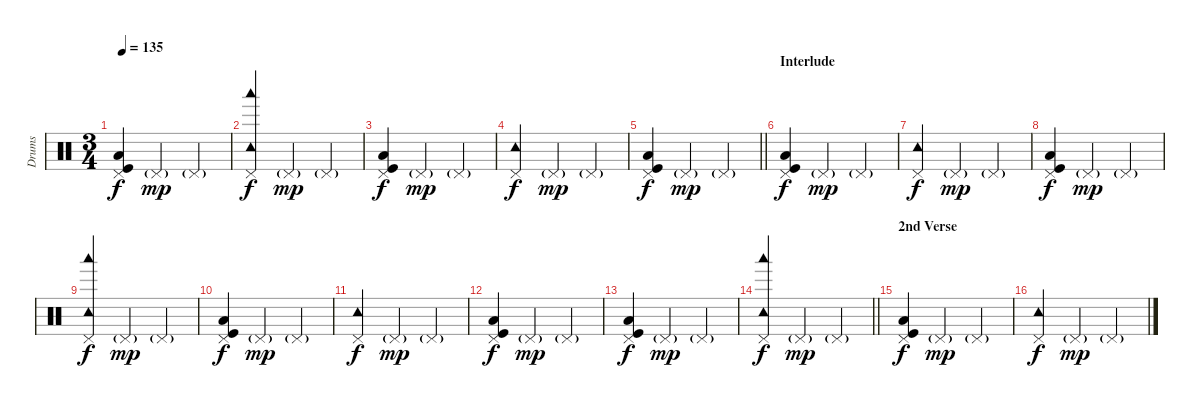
\track ("Drums" "Drums") {instrument percussion}
\staff {score}
\articulation defaults
\ts (3 4)
\tempo 135
\clef neutral
\ks c
("Pedal Hi-Hat (hit)" "Low Floor Tom (hit)" "Kick (hit)").4{dy f} "Pedal Hi-Hat (hit)"{g}.4{dy mp} "Pedal Hi-Hat (hit)"{g}.4 |
("Pedal Hi-Hat (hit)" "Woodblock low (hit)" "Tambourine (hit)").4{dy f} "Pedal Hi-Hat (hit)"{g}.4{dy mp} "Pedal Hi-Hat (hit)"{g}.4 |
("Pedal Hi-Hat (hit)" "Low Floor Tom (hit)" "Kick (hit)").4{dy f} "Pedal Hi-Hat (hit)"{g}.4{dy mp} "Pedal Hi-Hat (hit)"{g}.4 |
("Pedal Hi-Hat (hit)" "Tambourine (hit)").4{dy f} "Pedal Hi-Hat (hit)"{g}.4{dy mp} "Pedal Hi-Hat (hit)"{g}.4 |
\barLineRight lightlight
("Pedal Hi-Hat (hit)" "Low Floor Tom (hit)" "Kick (hit)").4{dy f} "Pedal Hi-Hat (hit)"{g}.4{dy mp} "Pedal Hi-Hat (hit)"{g}.4 |
\section ("" "Interlude")
("Pedal Hi-Hat (hit)" "Low Floor Tom (hit)" "Kick (hit)").4{dy f} "Pedal Hi-Hat (hit)"{g}.4{dy mp} "Pedal Hi-Hat (hit)"{g}.4 |
("Pedal Hi-Hat (hit)" "Tambourine (hit)").4{dy f} "Pedal Hi-Hat (hit)"{g}.4{dy mp} "Pedal Hi-Hat (hit)"{g}.4 |
("Pedal Hi-Hat (hit)" "Low Floor Tom (hit)" "Kick (hit)").4{dy f} "Pedal Hi-Hat (hit)"{g}.4{dy mp} "Pedal Hi-Hat (hit)"{g}.4 |
("Pedal Hi-Hat (hit)" "Woodblock low (hit)" "Tambourine (hit)").4{dy f} "Pedal Hi-Hat (hit)"{g}.4{dy mp} "Pedal Hi-Hat (hit)"{g}.4 |
("Pedal Hi-Hat (hit)" "Low Floor Tom (hit)" "Kick (hit)").4{dy f} "Pedal Hi-Hat (hit)"{g}.4{dy mp} "Pedal Hi-Hat (hit)"{g}.4 |
("Pedal Hi-Hat (hit)" "Tambourine (hit)").4{dy f} "Pedal Hi-Hat (hit)"{g}.4{dy mp} "Pedal Hi-Hat (hit)"{g}.4 |
("Pedal Hi-Hat (hit)" "Low Floor Tom (hit)" "Kick (hit)").4{dy f} "Pedal Hi-Hat (hit)"{g}.4{dy mp} "Pedal Hi-Hat (hit)"{g}.4 |
("Pedal Hi-Hat (hit)" "Low Floor Tom (hit)" "Kick (hit)").4{dy f} "Pedal Hi-Hat (hit)"{g}.4{dy mp} "Pedal Hi-Hat (hit)"{g}.4 |
\barLineRight lightlight
("Pedal Hi-Hat (hit)" "Woodblock low (hit)" "Tambourine (hit)").4{dy f} "Pedal Hi-Hat (hit)"{g}.4{dy mp} "Pedal Hi-Hat (hit)"{g}.4 |
\section ("" "2nd Verse")
("Pedal Hi-Hat (hit)" "Low Floor Tom (hit)" "Kick (hit)").4{dy f} "Pedal Hi-Hat (hit)"{g}.4{dy mp} "Pedal Hi-Hat (hit)"{g}.4 |
("Pedal Hi-Hat (hit)" "Tambourine (hit)").4{dy f} "Pedal Hi-Hat (hit)"{g}.4{dy mp} "Pedal Hi-Hat (hit)"{g}.4
